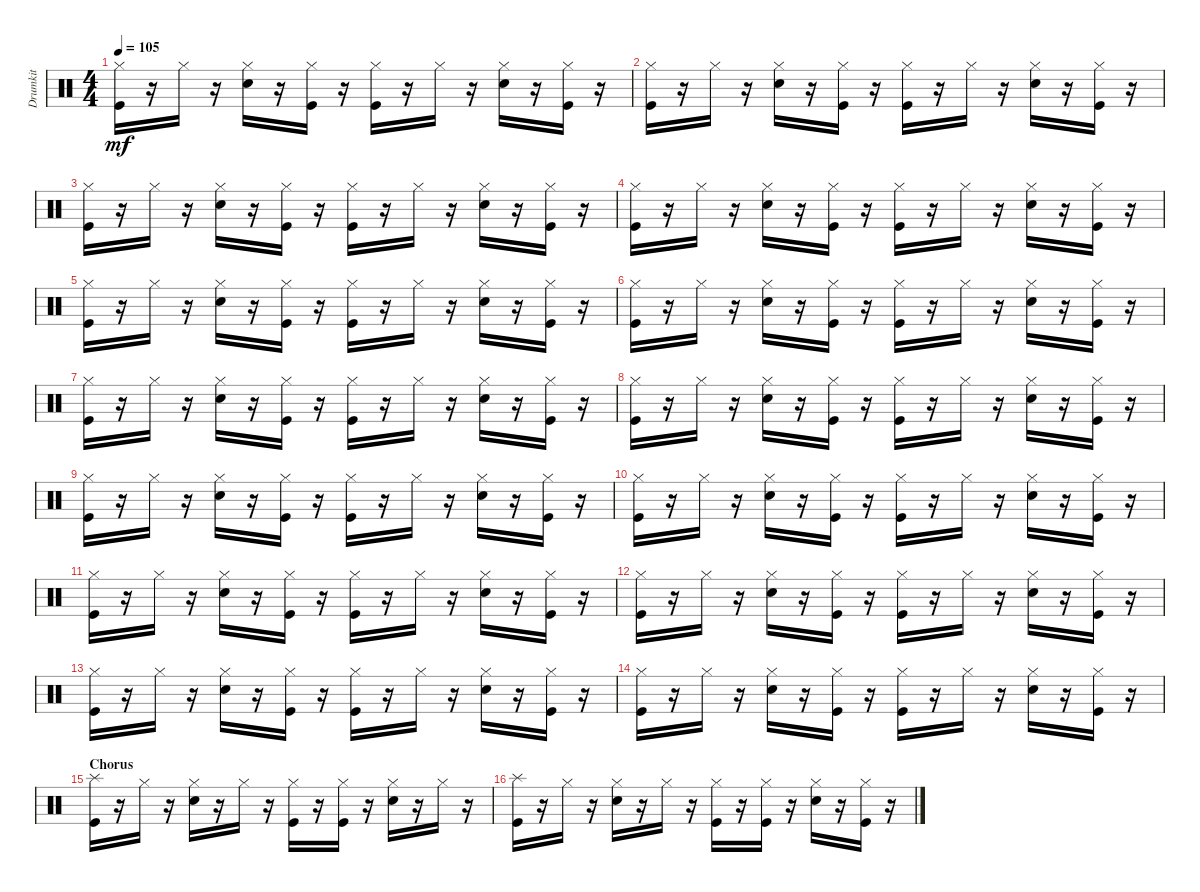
\track ("Drumkit" "Drumkit") {instrument percussion}
\staff {score}
\articulation defaults
\ts (4 4)
\tempo 105
\clef neutral
\ks c
("Kick (hit)" "Hi-Hat (closed)").16{dy mf} r.16 "Hi-Hat (closed)".16 r.16 ("Hi-Hat (closed)" "Snare (hit) 2").16 r.16 ("Hi-Hat (closed)" "Kick (hit)").16 r.16 ("Hi-Hat (closed)" "Kick (hit)").16 r.16 "Hi-Hat (closed)".16 r.16 ("Hi-Hat (closed)" "Snare (hit) 2").16 r.16 ("Hi-Hat (closed)" "Kick (hit)").16 r.16 |
("Kick (hit)" "Hi-Hat (closed)").16 r.16 "Hi-Hat (closed)".16 r.16 ("Hi-Hat (closed)" "Snare (hit) 2").16 r.16 ("Hi-Hat (closed)" "Kick (hit)").16 r.16 ("Hi-Hat (closed)" "Kick (hit)").16 r.16 "Hi-Hat (closed)".16 r.16 ("Hi-Hat (closed)" "Snare (hit) 2").16 r.16 ("Hi-Hat (closed)" "Kick (hit)").16 r.16 |
("Kick (hit)" "Hi-Hat (closed)").16 r.16 "Hi-Hat (closed)".16 r.16 ("Hi-Hat (closed)" "Snare (hit) 2").16 r.16 ("Hi-Hat (closed)" "Kick (hit)").16 r.16 ("Hi-Hat (closed)" "Kick (hit)").16 r.16 "Hi-Hat (closed)".16 r.16 ("Hi-Hat (closed)" "Snare (hit) 2").16 r.16 ("Hi-Hat (closed)" "Kick (hit)").16 r.16 |
("Kick (hit)" "Hi-Hat (closed)").16 r.16 "Hi-Hat (closed)".16 r.16 ("Hi-Hat (closed)" "Snare (hit) 2").16 r.16 ("Hi-Hat (closed)" "Kick (hit)").16 r.16 ("Hi-Hat (closed)" "Kick (hit)").16 r.16 "Hi-Hat (closed)".16 r.16 ("Hi-Hat (closed)" "Snare (hit) 2").16 r.16 ("Hi-Hat (closed)" "Kick (hit)").16 r.16 |
("Kick (hit)" "Hi-Hat (closed)").16 r.16 "Hi-Hat (closed)".16 r.16 ("Hi-Hat (closed)" "Snare (hit) 2").16 r.16 ("Hi-Hat (closed)" "Kick (hit)").16 r.16 ("Hi-Hat (closed)" "Kick (hit)").16 r.16 "Hi-Hat (closed)".16 r.16 ("Hi-Hat (closed)" "Snare (hit) 2").16 r.16 ("Hi-Hat (closed)" "Kick (hit)").16 r.16 |
("Kick (hit)" "Hi-Hat (closed)").16 r.16 "Hi-Hat (closed)".16 r.16 ("Hi-Hat (closed)" "Snare (hit) 2").16 r.16 ("Hi-Hat (closed)" "Kick (hit)").16 r.16 ("Hi-Hat (closed)" "Kick (hit)").16 r.16 "Hi-Hat (closed)".16 r.16 ("Hi-Hat (closed)" "Snare (hit) 2").16 r.16 ("Hi-Hat (closed)" "Kick (hit)").16 r.16 |
("Kick (hit)" "Hi-Hat (closed)").16 r.16 "Hi-Hat (closed)".16 r.16 ("Hi-Hat (closed)" "Snare (hit) 2").16 r.16 ("Hi-Hat (closed)" "Kick (hit)").16 r.16 ("Hi-Hat (closed)" "Kick (hit)").16 r.16 "Hi-Hat (closed)".16 r.16 ("Hi-Hat (closed)" "Snare (hit) 2").16 r.16 ("Hi-Hat (closed)" "Kick (hit)").16 r.16 |
("Kick (hit)" "Hi-Hat (closed)").16 r.16 "Hi-Hat (closed)".16 r.16 ("Hi-Hat (closed)" "Snare (hit) 2").16 r.16 ("Hi-Hat (closed)" "Kick (hit)").16 r.16 ("Hi-Hat (closed)" "Kick (hit)").16 r.16 "Hi-Hat (closed)".16 r.16 ("Hi-Hat (closed)" "Snare (hit) 2").16 r.16 ("Hi-Hat (closed)" "Kick (hit)").16 r.16 |
("Kick (hit)" "Hi-Hat (closed)").16 r.16 "Hi-Hat (closed)".16 r.16 ("Hi-Hat (closed)" "Snare (hit) 2").16 r.16 ("Hi-Hat (closed)" "Kick (hit)").16 r.16 ("Hi-Hat (closed)" "Kick (hit)").16 r.16 "Hi-Hat (closed)".16 r.16 ("Hi-Hat (closed)" "Snare (hit) 2").16 r.16 ("Hi-Hat (closed)" "Kick (hit)").16 r.16 |
("Kick (hit)" "Hi-Hat (closed)").16 r.16 "Hi-Hat (closed)".16 r.16 ("Hi-Hat (closed)" "Snare (hit) 2").16 r.16 ("Hi-Hat (closed)" "Kick (hit)").16 r.16 ("Hi-Hat (closed)" "Kick (hit)").16 r.16 "Hi-Hat (closed)".16 r.16 ("Hi-Hat (closed)" "Snare (hit) 2").16 r.16 ("Hi-Hat (closed)" "Kick (hit)").16 r.16 |
("Kick (hit)" "Hi-Hat (closed)").16 r.16 "Hi-Hat (closed)".16 r.16 ("Hi-Hat (closed)" "Snare (hit) 2").16 r.16 ("Hi-Hat (closed)" "Kick (hit)").16 r.16 ("Hi-Hat (closed)" "Kick (hit)").16 r.16 "Hi-Hat (closed)".16 r.16 ("Hi-Hat (closed)" "Snare (hit) 2").16 r.16 ("Hi-Hat (closed)" "Kick (hit)").16 r.16 |
("Kick (hit)" "Hi-Hat (closed)").16 r.16 "Hi-Hat (closed)".16 r.16 ("Hi-Hat (closed)" "Snare (hit) 2").16 r.16 ("Hi-Hat (closed)" "Kick (hit)").16 r.16 ("Hi-Hat (closed)" "Kick (hit)").16 r.16 "Hi-Hat (closed)".16 r.16 ("Hi-Hat (closed)" "Snare (hit) 2").16 r.16 ("Hi-Hat (closed)" "Kick (hit)").16 r.16 |
("Kick (hit)" "Hi-Hat (closed)").16 r.16 "Hi-Hat (closed)".16 r.16 ("Hi-Hat (closed)" "Snare (hit) 2").16 r.16 ("Hi-Hat (closed)" "Kick (hit)").16 r.16 ("Hi-Hat (closed)" "Kick (hit)").16 r.16 "Hi-Hat (closed)".16 r.16 ("Hi-Hat (closed)" "Snare (hit) 2").16 r.16 ("Hi-Hat (closed)" "Kick (hit)").16 r.16 |
("Kick (hit)" "Hi-Hat (closed)").16 r.16 "Hi-Hat (closed)".16 r.16 ("Hi-Hat (closed)" "Snare (hit) 2").16 r.16 ("Hi-Hat (closed)" "Kick (hit)").16 r.16 ("Hi-Hat (closed)" "Kick (hit)").16 r.16 "Hi-Hat (closed)".16 r.16 ("Hi-Hat (closed)" "Snare (hit) 2").16 r.16 ("Hi-Hat (closed)" "Kick (hit)").16 r.16 |
\section ("" "Chorus")
("Kick (hit)" "Splash (hit)").16 r.16 "Hi-Hat (closed)".16 r.16 ("Hi-Hat (closed)" "Snare (hit) 2").16 r.16 "Hi-Hat (closed)".16 r.16 ("Hi-Hat (closed)" "Kick (hit)").16 r.16 ("Hi-Hat (closed)" "Kick (hit)").16 r.16 ("Hi-Hat (closed)" "Snare (hit) 2").16 r.16 "Hi-Hat (closed)".16 r.16 |
("Kick (hit)" "Splash (hit)").16 r.16 "Hi-Hat (closed)".16 r.16 ("Hi-Hat (closed)" "Snare (hit) 2").16 r.16 "Hi-Hat (closed)".16 r.16 ("Hi-Hat (closed)" "Kick (hit)").16 r.16 ("Hi-Hat (closed)" "Kick (hit)").16 r.16 ("Hi-Hat (closed)" "Snare (hit) 2").16 r.16 ("Hi-Hat (closed)" "Kick (hit)").16 r.16
